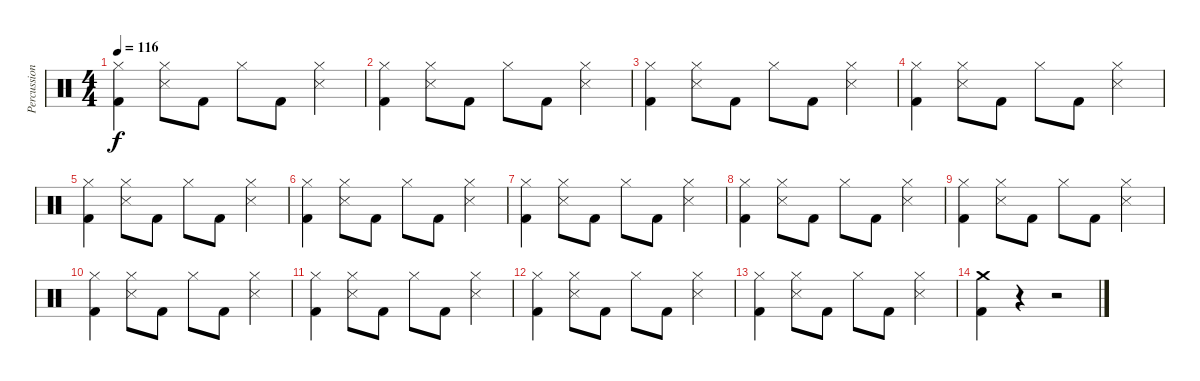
\track ("Percussions" "Percussion") {instrument percussion}
\staff {score}
\articulation defaults
\ts (4 4)
\tempo 116
\clef neutral
\ks c
("Hi-Hat (closed)" "Kick (hit) 2").4{dy f} ("Hi-Hat (closed)" "Snare (side stick) 3").8 "Kick (hit) 2".8 "Hi-Hat (closed)".8 "Kick (hit) 2".8 ("Hi-Hat (closed)" "Snare (side stick) 3").4 |
("Hi-Hat (closed)" "Kick (hit) 2").4 ("Hi-Hat (closed)" "Snare (side stick) 3").8 "Kick (hit) 2".8 "Hi-Hat (closed)".8 "Kick (hit) 2".8 ("Hi-Hat (closed)" "Snare (side stick) 3").4 |
("Hi-Hat (closed)" "Kick (hit) 2").4 ("Hi-Hat (closed)" "Snare (side stick) 3").8 "Kick (hit) 2".8 "Hi-Hat (closed)".8 "Kick (hit) 2".8 ("Hi-Hat (closed)" "Snare (side stick) 3").4 |
("Hi-Hat (closed)" "Kick (hit) 2").4 ("Hi-Hat (closed)" "Snare (side stick) 3").8 "Kick (hit) 2".8 "Hi-Hat (closed)".8 "Kick (hit) 2".8 ("Hi-Hat (closed)" "Snare (side stick) 3").4 |
("Hi-Hat (closed)" "Kick (hit) 2").4 ("Hi-Hat (closed)" "Snare (side stick) 3").8 "Kick (hit) 2".8 "Hi-Hat (closed)".8 "Kick (hit) 2".8 ("Hi-Hat (closed)" "Snare (side stick) 3").4 |
("Hi-Hat (closed)" "Kick (hit) 2").4 ("Hi-Hat (closed)" "Snare (side stick) 3").8 "Kick (hit) 2".8 "Hi-Hat (closed)".8 "Kick (hit) 2".8 ("Hi-Hat (closed)" "Snare (side stick) 3").4 |
("Hi-Hat (closed)" "Kick (hit) 2").4 ("Hi-Hat (closed)" "Snare (side stick) 3").8 "Kick (hit) 2".8 "Hi-Hat (closed)".8 "Kick (hit) 2".8 ("Hi-Hat (closed)" "Snare (side stick) 3").4 |
("Hi-Hat (closed)" "Kick (hit) 2").4 ("Hi-Hat (closed)" "Snare (side stick) 3").8 "Kick (hit) 2".8 "Hi-Hat (closed)".8 "Kick (hit) 2".8 ("Hi-Hat (closed)" "Snare (side stick) 3").4 |
("Hi-Hat (closed)" "Kick (hit) 2").4 ("Hi-Hat (closed)" "Snare (side stick) 3").8 "Kick (hit) 2".8 "Hi-Hat (closed)".8 "Kick (hit) 2".8 ("Hi-Hat (closed)" "Snare (side stick) 3").4 |
("Hi-Hat (closed)" "Kick (hit) 2").4 ("Hi-Hat (closed)" "Snare (side stick) 3").8 "Kick (hit) 2".8 "Hi-Hat (closed)".8 "Kick (hit) 2".8 ("Hi-Hat (closed)" "Snare (side stick) 3").4 |
("Hi-Hat (closed)" "Kick (hit) 2").4 ("Hi-Hat (closed)" "Snare (side stick) 3").8 "Kick (hit) 2".8 "Hi-Hat (closed)".8 "Kick (hit) 2".8 ("Hi-Hat (closed)" "Snare (side stick) 3").4 |
("Hi-Hat (closed)" "Kick (hit) 2").4 ("Hi-Hat (closed)" "Snare (side stick) 3").8 "Kick (hit) 2".8 "Hi-Hat (closed)".8 "Kick (hit) 2".8 ("Hi-Hat (closed)" "Snare (side stick) 3").4 |
("Hi-Hat (closed)" "Kick (hit) 2").4 ("Hi-Hat (closed)" "Snare (side stick) 3").8 "Kick (hit) 2".8 "Hi-Hat (closed)".8 "Kick (hit) 2".8 ("Hi-Hat (closed)" "Snare (side stick) 3").4 |
("Crash medium (hit)" "Kick (hit) 2").4 r.4 r.2
